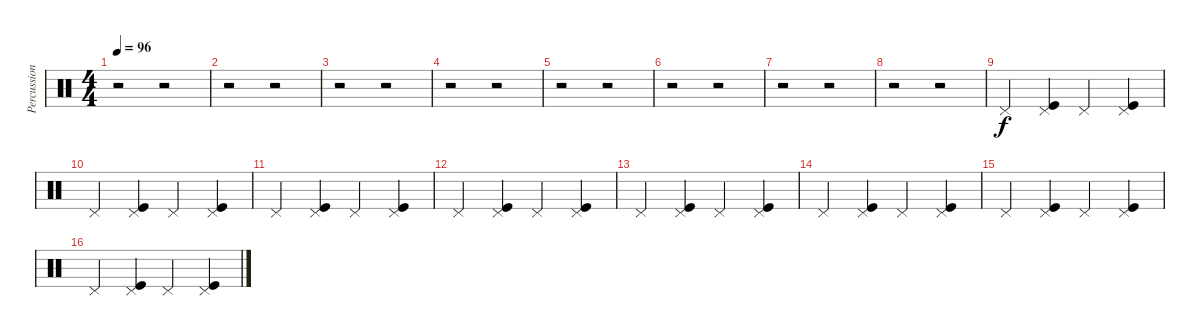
\track ("Percussion (Rico)" "Percussion") {instrument percussion}
\staff {score}
\articulation defaults
\ts (4 4)
\tempo 96
\clef neutral
\ks c
r.2{dy f} r.2 |
r.2 r.2 |
r.2 r.2 |
r.2 r.2 |
r.2 r.2 |
r.2 r.2 |
r.2 r.2 |
r.2 r.2 |
"Pedal Hi-Hat (hit)".4 ("Pedal Hi-Hat (hit)" "Kick (hit)").4 "Pedal Hi-Hat (hit)".4 ("Pedal Hi-Hat (hit)" "Kick (hit)").4 |
"Pedal Hi-Hat (hit)".4 ("Pedal Hi-Hat (hit)" "Kick (hit)").4 "Pedal Hi-Hat (hit)".4 ("Pedal Hi-Hat (hit)" "Kick (hit)").4 |
"Pedal Hi-Hat (hit)".4 ("Pedal Hi-Hat (hit)" "Kick (hit)").4 "Pedal Hi-Hat (hit)".4 ("Pedal Hi-Hat (hit)" "Kick (hit)").4 |
"Pedal Hi-Hat (hit)".4 ("Pedal Hi-Hat (hit)" "Kick (hit)").4 "Pedal Hi-Hat (hit)".4 ("Pedal Hi-Hat (hit)" "Kick (hit)").4 |
"Pedal Hi-Hat (hit)".4 ("Pedal Hi-Hat (hit)" "Kick (hit)").4 "Pedal Hi-Hat (hit)".4 ("Pedal Hi-Hat (hit)" "Kick (hit)").4 |
"Pedal Hi-Hat (hit)".4 ("Pedal Hi-Hat (hit)" "Kick (hit)").4 "Pedal Hi-Hat (hit)".4 ("Pedal Hi-Hat (hit)" "Kick (hit)").4 |
"Pedal Hi-Hat (hit)".4 ("Pedal Hi-Hat (hit)" "Kick (hit)").4 "Pedal Hi-Hat (hit)".4 ("Pedal Hi-Hat (hit)" "Kick (hit)").4 |
"Pedal Hi-Hat (hit)".4 ("Pedal Hi-Hat (hit)" "Kick (hit)").4 "Pedal Hi-Hat (hit)".4 ("Pedal Hi-Hat (hit)" "Kick (hit)").4
